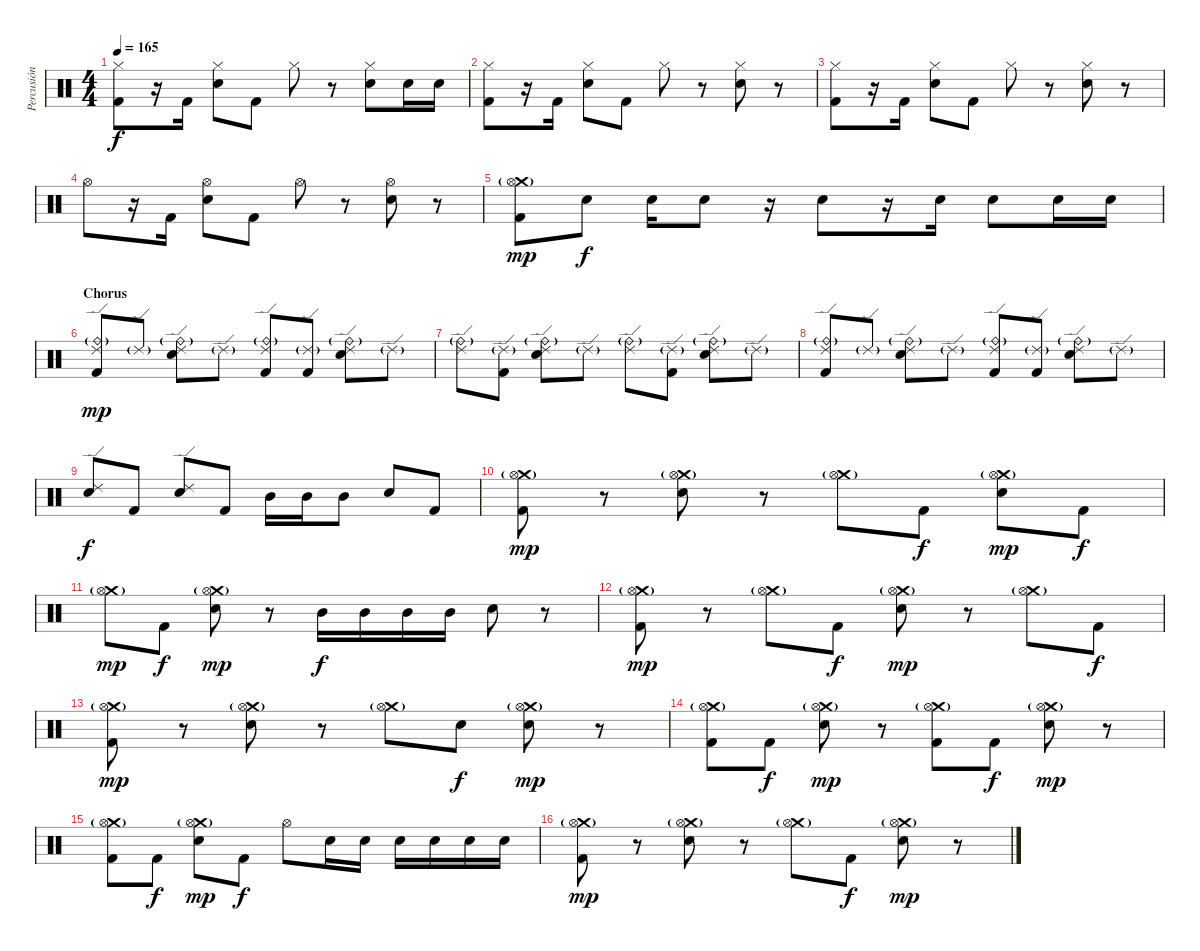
\track ("Percusión" "Percusión") {instrument percussion}
\staff {score}
\articulation defaults
\ts (4 4)
\tempo 165
\clef neutral
\ks c
("Hi-Hat (closed)" "Kick (hit) 2").8{dy f} r.16 "Kick (hit) 2".16 ("Hi-Hat (closed)" "Electric Snare (hit)").8 "Kick (hit) 2".8 "Hi-Hat (closed)".8 r.8 ("Hi-Hat (closed)" "Electric Snare (hit)").8 "Electric Snare (hit)".16 "Electric Snare (hit)".16 |
("Hi-Hat (closed)" "Kick (hit) 2").8 r.16 "Kick (hit) 2".16 ("Hi-Hat (closed)" "Electric Snare (hit)").8 "Kick (hit) 2".8 "Hi-Hat (closed)".8 r.8 ("Hi-Hat (closed)" "Electric Snare (hit)").8 r.8 |
("Hi-Hat (closed)" "Kick (hit) 2").8 r.16 "Kick (hit) 2".16 ("Hi-Hat (closed)" "Electric Snare (hit)").8 "Kick (hit) 2".8 "Hi-Hat (closed)".8 r.8 ("Hi-Hat (closed)" "Electric Snare (hit)").8 r.8 |
"Hi-Hat (open)".8 r.16 "Kick (hit) 2".16 ("Hi-Hat (open)" "Electric Snare (hit)").8 "Kick (hit) 2".8 "Hi-Hat (open)".8 r.8 ("Hi-Hat (open)" "Electric Snare (hit)").8 r.8 |
("Crash medium (hit)"{g} "Hi-Hat (open)" "Kick (hit) 2").8{dy mp} "Electric Snare (hit)".8{dy f} "Electric Snare (hit)".16 "Electric Snare (hit)".8 r.16 "Electric Snare (hit)".8 r.16 "Electric Snare (hit)".16 "Electric Snare (hit)".8 "Electric Snare (hit)".16 "Electric Snare (hit)".16 |
\section ("" "Chorus")
("Ride (bell)"{g} "Ride (edge) 2" "Kick (hit) 2").8{dy mp} "Ride (edge) 2"{g}.8 ("Ride (bell)"{g} "Ride (edge) 2" "Electric Snare (hit)").8 "Ride (edge) 2"{g}.8 ("Ride (bell)"{g} "Ride (edge) 2" "Kick (hit) 2").8 ("Ride (edge) 2"{g} "Kick (hit) 2").8 ("Ride (bell)"{g} "Ride (edge) 2" "Electric Snare (hit)").8 "Ride (edge) 2"{g}.8 |
("Ride (bell)"{g} "Ride (edge) 2").8 ("Ride (edge) 2"{g} "Kick (hit) 2").8 ("Ride (bell)"{g} "Ride (edge) 2" "Electric Snare (hit)").8 "Ride (edge) 2"{g}.8 ("Ride (bell)"{g} "Ride (edge) 2").8 ("Ride (edge) 2"{g} "Kick (hit) 2").8 ("Ride (bell)"{g} "Ride (edge) 2" "Electric Snare (hit)").8 "Ride (edge) 2"{g}.8 |
("Ride (bell)"{g} "Ride (edge) 2" "Kick (hit) 2").8 "Ride (edge) 2"{g}.8 ("Ride (bell)"{g} "Ride (edge) 2" "Electric Snare (hit)").8 "Ride (edge) 2"{g}.8 ("Ride (bell)"{g} "Ride (edge) 2" "Kick (hit) 2").8 ("Ride (edge) 2"{g} "Kick (hit) 2").8 ("Ride (bell)"{g} "Ride (edge) 2" "Electric Snare (hit)").8 "Ride (edge) 2"{g}.8 |
("Ride (edge) 2" "Electric Snare (hit)").8{dy f} "Kick (hit) 2".8 ("Ride (edge) 2" "Electric Snare (hit)").8 "Kick (hit) 2".8 "Mid Tom (hit)".16 "Mid Tom (hit)".16 "Mid Tom (hit)".8 "Electric Snare (hit)".8 "Kick (hit) 2".8 |
("Crash medium (hit)"{g} "Hi-Hat (open)" "Kick (hit) 2").8{dy mp} r.8 ("Crash medium (hit)"{g} "Hi-Hat (open)" "Electric Snare (hit)").8 r.8 ("Crash medium (hit)"{g} "Hi-Hat (open)").8 "Kick (hit) 2".8{dy f} ("Crash medium (hit)"{g} "Hi-Hat (open)" "Electric Snare (hit)").8{dy mp} "Kick (hit) 2".8{dy f} |
("Crash medium (hit)"{g} "Hi-Hat (open)").8{dy mp} "Kick (hit) 2".8{dy f} ("Crash medium (hit)"{g} "Hi-Hat (open)" "Electric Snare (hit)").8{dy mp} r.8 "Mid Tom (hit)".16{dy f} "Mid Tom (hit)".16 "Mid Tom (hit)".16 "Mid Tom (hit)".16 "Electric Snare (hit)".8 r.8 |
("Crash medium (hit)"{g} "Hi-Hat (open)" "Kick (hit) 2").8{dy mp} r.8 ("Crash medium (hit)"{g} "Hi-Hat (open)").8 "Kick (hit) 2".8{dy f} ("Crash medium (hit)"{g} "Hi-Hat (open)" "Electric Snare (hit)").8{dy mp} r.8 ("Crash medium (hit)"{g} "Hi-Hat (open)").8 "Kick (hit) 2".8{dy f} |
("Crash medium (hit)"{g} "Hi-Hat (open)" "Kick (hit) 2").8{dy mp} r.8 ("Crash medium (hit)"{g} "Hi-Hat (open)" "Electric Snare (hit)").8 r.8 ("Crash medium (hit)"{g} "Hi-Hat (open)").8 "Electric Snare (hit)".8{dy f} ("Crash medium (hit)"{g} "Hi-Hat (open)" "Electric Snare (hit)").8{dy mp} r.8 |
("Crash medium (hit)"{g} "Hi-Hat (open)" "Kick (hit) 2").8 "Kick (hit) 2".8{dy f} ("Crash medium (hit)"{g} "Hi-Hat (open)" "Electric Snare (hit)").8{dy mp} r.8 ("Crash medium (hit)"{g} "Hi-Hat (open)" "Kick (hit) 2").8 "Kick (hit) 2".8{dy f} ("Crash medium (hit)"{g} "Hi-Hat (open)" "Electric Snare (hit)").8{dy mp} r.8 |
("Crash medium (hit)"{g} "Hi-Hat (open)" "Kick (hit) 2").8 "Kick (hit) 2".8{dy f} ("Crash medium (hit)"{g} "Hi-Hat (open)" "Electric Snare (hit)").8{dy mp} "Kick (hit) 2".8{dy f} "Hi-Hat (open)".8 "Electric Snare (hit)".16 "Electric Snare (hit)".16 "Electric Snare (hit)".16 "Electric Snare (hit)".16 "Electric Snare (hit)".16 "Electric Snare (hit)".16 |
("Crash medium (hit)"{g} "Hi-Hat (open)" "Kick (hit) 2").8{dy mp} r.8 ("Crash medium (hit)"{g} "Hi-Hat (open)" "Electric Snare (hit)").8 r.8 ("Crash medium (hit)"{g} "Hi-Hat (open)").8 "Kick (hit) 2".8{dy f} ("Crash medium (hit)"{g} "Hi-Hat (open)" "Electric Snare (hit)").8{dy mp} r.8
